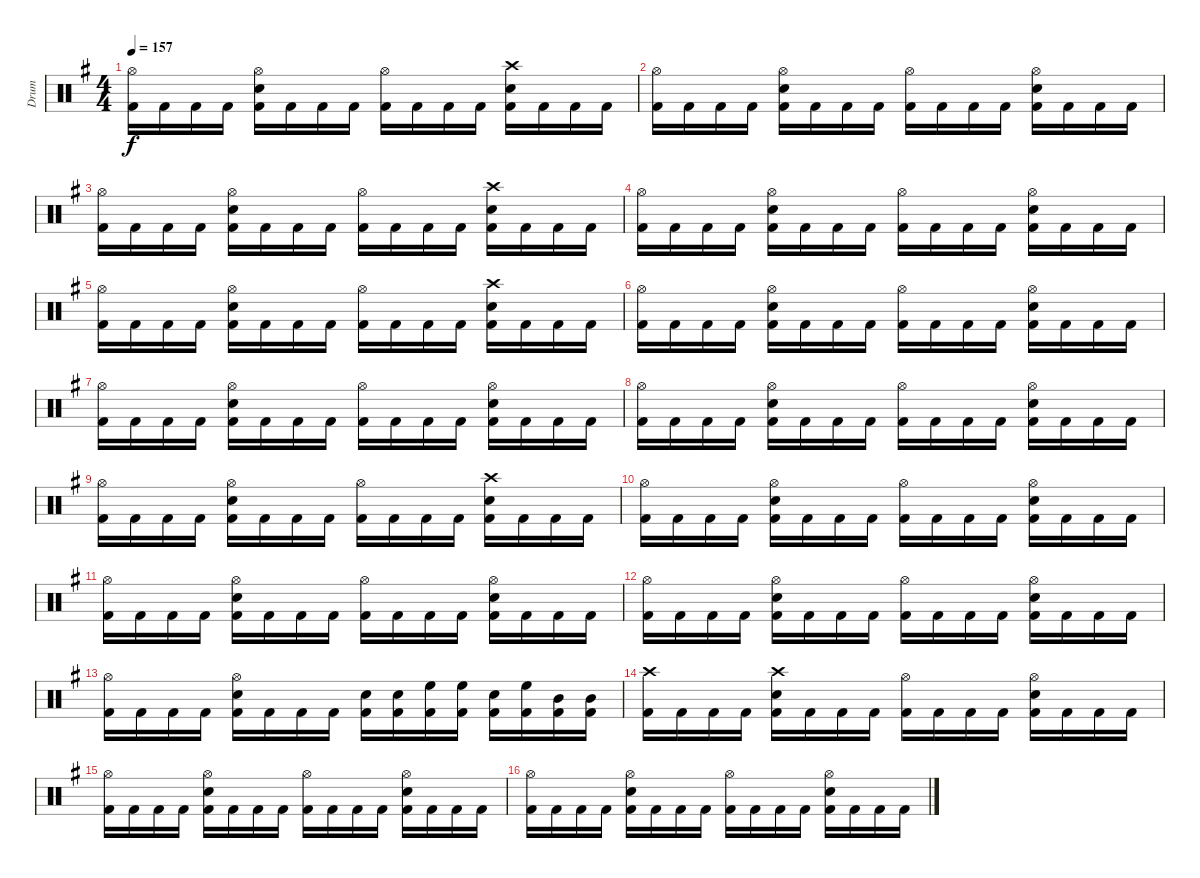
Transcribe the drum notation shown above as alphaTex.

\track ("Drum" "Drum") {instrument percussion}
\staff {score}
\articulation defaults
\ts (4 4)
\tempo 157
\clef neutral
\ks eminor
("Hi-Hat (open)" "Kick (hit) 2").16{dy f} "Kick (hit) 2".16 "Kick (hit) 2".16 "Kick (hit) 2".16 ("Hi-Hat (open)" "Snare (hit) 2" "Kick (hit) 2").16 "Kick (hit) 2".16 "Kick (hit) 2".16 "Kick (hit) 2".16 ("Hi-Hat (open)" "Kick (hit) 2").16 "Kick (hit) 2".16 "Kick (hit) 2".16 "Kick (hit) 2".16 ("Crash high (hit)" "Snare (hit) 2" "Kick (hit) 2").16 "Kick (hit) 2".16 "Kick (hit) 2".16 "Kick (hit) 2".16 |
("Hi-Hat (open)" "Kick (hit) 2").16 "Kick (hit) 2".16 "Kick (hit) 2".16 "Kick (hit) 2".16 ("Hi-Hat (open)" "Snare (hit) 2" "Kick (hit) 2").16 "Kick (hit) 2".16 "Kick (hit) 2".16 "Kick (hit) 2".16 ("Hi-Hat (open)" "Kick (hit) 2").16 "Kick (hit) 2".16 "Kick (hit) 2".16 "Kick (hit) 2".16 ("Hi-Hat (open)" "Snare (hit) 2" "Kick (hit) 2").16 "Kick (hit) 2".16 "Kick (hit) 2".16 "Kick (hit) 2".16 |
("Hi-Hat (open)" "Kick (hit) 2").16 "Kick (hit) 2".16 "Kick (hit) 2".16 "Kick (hit) 2".16 ("Hi-Hat (open)" "Snare (hit) 2" "Kick (hit) 2").16 "Kick (hit) 2".16 "Kick (hit) 2".16 "Kick (hit) 2".16 ("Hi-Hat (open)" "Kick (hit) 2").16 "Kick (hit) 2".16 "Kick (hit) 2".16 "Kick (hit) 2".16 ("Crash high (hit)" "Snare (hit) 2" "Kick (hit) 2").16 "Kick (hit) 2".16 "Kick (hit) 2".16 "Kick (hit) 2".16 |
("Hi-Hat (open)" "Kick (hit) 2").16 "Kick (hit) 2".16 "Kick (hit) 2".16 "Kick (hit) 2".16 ("Hi-Hat (open)" "Snare (hit) 2" "Kick (hit) 2").16 "Kick (hit) 2".16 "Kick (hit) 2".16 "Kick (hit) 2".16 ("Hi-Hat (open)" "Kick (hit) 2").16 "Kick (hit) 2".16 "Kick (hit) 2".16 "Kick (hit) 2".16 ("Hi-Hat (open)" "Snare (hit) 2" "Kick (hit) 2").16 "Kick (hit) 2".16 "Kick (hit) 2".16 "Kick (hit) 2".16 |
("Hi-Hat (open)" "Kick (hit) 2").16 "Kick (hit) 2".16 "Kick (hit) 2".16 "Kick (hit) 2".16 ("Hi-Hat (open)" "Snare (hit) 2" "Kick (hit) 2").16 "Kick (hit) 2".16 "Kick (hit) 2".16 "Kick (hit) 2".16 ("Hi-Hat (open)" "Kick (hit) 2").16 "Kick (hit) 2".16 "Kick (hit) 2".16 "Kick (hit) 2".16 ("Crash high (hit)" "Snare (hit) 2" "Kick (hit) 2").16 "Kick (hit) 2".16 "Kick (hit) 2".16 "Kick (hit) 2".16 |
("Hi-Hat (open)" "Kick (hit) 2").16 "Kick (hit) 2".16 "Kick (hit) 2".16 "Kick (hit) 2".16 ("Hi-Hat (open)" "Snare (hit) 2" "Kick (hit) 2").16 "Kick (hit) 2".16 "Kick (hit) 2".16 "Kick (hit) 2".16 ("Hi-Hat (open)" "Kick (hit) 2").16 "Kick (hit) 2".16 "Kick (hit) 2".16 "Kick (hit) 2".16 ("Hi-Hat (open)" "Snare (hit) 2" "Kick (hit) 2").16 "Kick (hit) 2".16 "Kick (hit) 2".16 "Kick (hit) 2".16 |
("Hi-Hat (open)" "Kick (hit) 2").16 "Kick (hit) 2".16 "Kick (hit) 2".16 "Kick (hit) 2".16 ("Hi-Hat (open)" "Snare (hit) 2" "Kick (hit) 2").16 "Kick (hit) 2".16 "Kick (hit) 2".16 "Kick (hit) 2".16 ("Hi-Hat (open)" "Kick (hit) 2").16 "Kick (hit) 2".16 "Kick (hit) 2".16 "Kick (hit) 2".16 ("Hi-Hat (open)" "Snare (hit) 2" "Kick (hit) 2").16 "Kick (hit) 2".16 "Kick (hit) 2".16 "Kick (hit) 2".16 |
("Hi-Hat (open)" "Kick (hit) 2").16 "Kick (hit) 2".16 "Kick (hit) 2".16 "Kick (hit) 2".16 ("Hi-Hat (open)" "Snare (hit) 2" "Kick (hit) 2").16 "Kick (hit) 2".16 "Kick (hit) 2".16 "Kick (hit) 2".16 ("Hi-Hat (open)" "Kick (hit) 2").16 "Kick (hit) 2".16 "Kick (hit) 2".16 "Kick (hit) 2".16 ("Hi-Hat (open)" "Snare (hit) 2" "Kick (hit) 2").16 "Kick (hit) 2".16 "Kick (hit) 2".16 "Kick (hit) 2".16 |
("Hi-Hat (open)" "Kick (hit) 2").16 "Kick (hit) 2".16 "Kick (hit) 2".16 "Kick (hit) 2".16 ("Hi-Hat (open)" "Snare (hit) 2" "Kick (hit) 2").16 "Kick (hit) 2".16 "Kick (hit) 2".16 "Kick (hit) 2".16 ("Hi-Hat (open)" "Kick (hit) 2").16 "Kick (hit) 2".16 "Kick (hit) 2".16 "Kick (hit) 2".16 ("Crash high (hit)" "Snare (hit) 2" "Kick (hit) 2").16 "Kick (hit) 2".16 "Kick (hit) 2".16 "Kick (hit) 2".16 |
("Hi-Hat (open)" "Kick (hit) 2").16 "Kick (hit) 2".16 "Kick (hit) 2".16 "Kick (hit) 2".16 ("Hi-Hat (open)" "Snare (hit) 2" "Kick (hit) 2").16 "Kick (hit) 2".16 "Kick (hit) 2".16 "Kick (hit) 2".16 ("Hi-Hat (open)" "Kick (hit) 2").16 "Kick (hit) 2".16 "Kick (hit) 2".16 "Kick (hit) 2".16 ("Hi-Hat (open)" "Snare (hit) 2" "Kick (hit) 2").16 "Kick (hit) 2".16 "Kick (hit) 2".16 "Kick (hit) 2".16 |
("Hi-Hat (open)" "Kick (hit) 2").16 "Kick (hit) 2".16 "Kick (hit) 2".16 "Kick (hit) 2".16 ("Hi-Hat (open)" "Snare (hit) 2" "Kick (hit) 2").16 "Kick (hit) 2".16 "Kick (hit) 2".16 "Kick (hit) 2".16 ("Hi-Hat (open)" "Kick (hit) 2").16 "Kick (hit) 2".16 "Kick (hit) 2".16 "Kick (hit) 2".16 ("Hi-Hat (open)" "Snare (hit) 2" "Kick (hit) 2").16 "Kick (hit) 2".16 "Kick (hit) 2".16 "Kick (hit) 2".16 |
("Hi-Hat (open)" "Kick (hit) 2").16 "Kick (hit) 2".16 "Kick (hit) 2".16 "Kick (hit) 2".16 ("Hi-Hat (open)" "Snare (hit) 2" "Kick (hit) 2").16 "Kick (hit) 2".16 "Kick (hit) 2".16 "Kick (hit) 2".16 ("Hi-Hat (open)" "Kick (hit) 2").16 "Kick (hit) 2".16 "Kick (hit) 2".16 "Kick (hit) 2".16 ("Hi-Hat (open)" "Snare (hit) 2" "Kick (hit) 2").16 "Kick (hit) 2".16 "Kick (hit) 2".16 "Kick (hit) 2".16 |
("Hi-Hat (open)" "Kick (hit) 2").16 "Kick (hit) 2".16 "Kick (hit) 2".16 "Kick (hit) 2".16 ("Hi-Hat (open)" "Snare (hit) 2" "Kick (hit) 2").16 "Kick (hit) 2".16 "Kick (hit) 2".16 "Kick (hit) 2".16 ("Snare (hit) 2" "Kick (hit) 2").16 ("Snare (hit) 2" "Kick (hit) 2").16 ("High Floor Tom (hit)" "Kick (hit) 2").16 ("High Floor Tom (hit)" "Kick (hit) 2").16 ("Snare (hit) 2" "Kick (hit) 2").16 ("High Floor Tom (hit)" "Kick (hit) 2").16 ("Mid Tom (hit)" "Kick (hit) 2").16 ("Mid Tom (hit)" "Kick (hit) 2").16 |
("Crash high (hit)" "Kick (hit) 2").16 "Kick (hit) 2".16 "Kick (hit) 2".16 "Kick (hit) 2".16 ("Crash high (hit)" "Snare (hit) 2" "Kick (hit) 2").16 "Kick (hit) 2".16 "Kick (hit) 2".16 "Kick (hit) 2".16 ("Hi-Hat (open)" "Kick (hit) 2").16 "Kick (hit) 2".16 "Kick (hit) 2".16 "Kick (hit) 2".16 ("Hi-Hat (open)" "Snare (hit) 2" "Kick (hit) 2").16 "Kick (hit) 2".16 "Kick (hit) 2".16 "Kick (hit) 2".16 |
("Hi-Hat (open)" "Kick (hit) 2").16 "Kick (hit) 2".16 "Kick (hit) 2".16 "Kick (hit) 2".16 ("Hi-Hat (open)" "Snare (hit) 2" "Kick (hit) 2").16 "Kick (hit) 2".16 "Kick (hit) 2".16 "Kick (hit) 2".16 ("Hi-Hat (open)" "Kick (hit) 2").16 "Kick (hit) 2".16 "Kick (hit) 2".16 "Kick (hit) 2".16 ("Hi-Hat (open)" "Snare (hit) 2" "Kick (hit) 2").16 "Kick (hit) 2".16 "Kick (hit) 2".16 "Kick (hit) 2".16 |
("Hi-Hat (open)" "Kick (hit) 2").16 "Kick (hit) 2".16 "Kick (hit) 2".16 "Kick (hit) 2".16 ("Hi-Hat (open)" "Snare (hit) 2" "Kick (hit) 2").16 "Kick (hit) 2".16 "Kick (hit) 2".16 "Kick (hit) 2".16 ("Hi-Hat (open)" "Kick (hit) 2").16 "Kick (hit) 2".16 "Kick (hit) 2".16 "Kick (hit) 2".16 ("Hi-Hat (open)" "Snare (hit) 2" "Kick (hit) 2").16 "Kick (hit) 2".16 "Kick (hit) 2".16 "Kick (hit) 2".16
